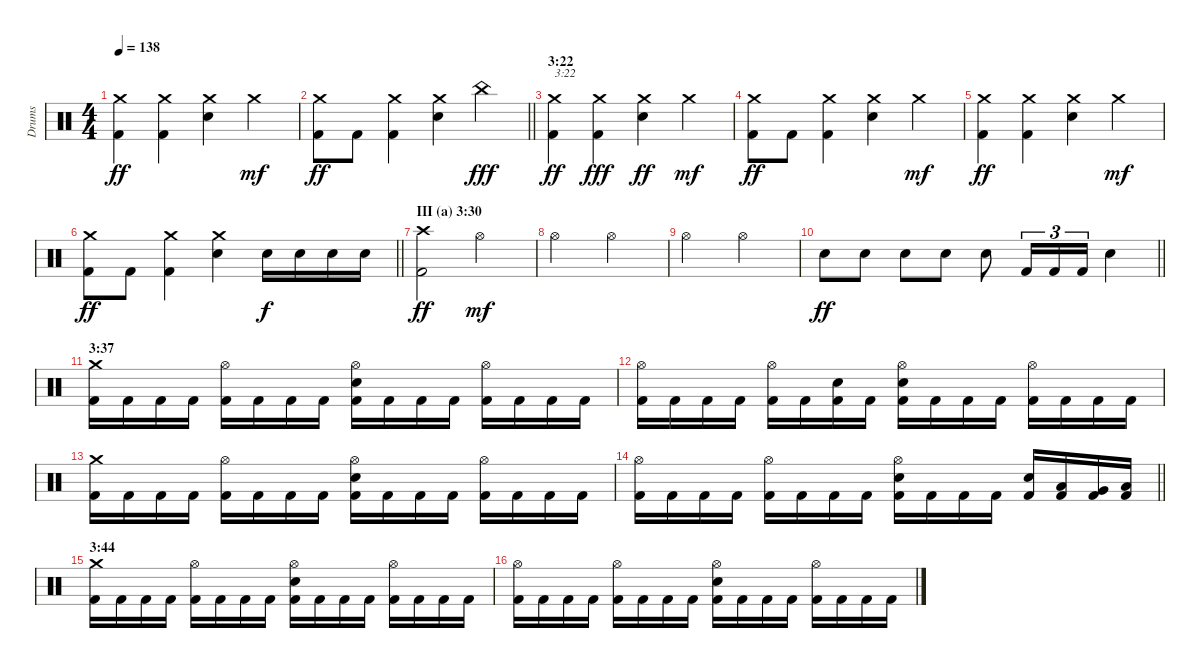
\track ("Drums" "Drums") {instrument percussion}
\staff {score}
\articulation defaults
\ts (4 4)
\tempo 138
\clef neutral
\ks c
("Crash medium (hit)" "Kick (hit) 2").4{dy ff} ("Crash medium (hit)" "Kick (hit) 2").4 ("Crash medium (hit)" "Electric Snare (hit)").4 "Crash medium (hit)".4{dy mf} |
\barLineRight lightlight
("Crash medium (hit)" "Kick (hit) 2").8{dy ff} "Kick (hit) 2".8 ("Crash medium (hit)" "Kick (hit) 2").4 ("Crash medium (hit)" "Electric Snare (hit)").4 "China (hit)".4{dy fff} |
\section ("" "3:22")
("Crash medium (hit)" "Kick (hit) 2").4{txt "3:22" dy ff} ("Crash medium (hit)" "Kick (hit) 2").4{dy fff} ("Crash medium (hit)" "Electric Snare (hit)").4{dy ff} "Crash medium (hit)".4{dy mf} |
("Crash medium (hit)" "Kick (hit) 2").8{dy ff} "Kick (hit) 2".8 ("Crash medium (hit)" "Kick (hit) 2").4 ("Crash medium (hit)" "Electric Snare (hit)").4 "Crash medium (hit)".4{dy mf} |
("Crash medium (hit)" "Kick (hit) 2").4{dy ff} ("Crash medium (hit)" "Kick (hit) 2").4 ("Crash medium (hit)" "Electric Snare (hit)").4 "Crash medium (hit)".4{dy mf} |
\barLineRight lightlight
("Crash medium (hit)" "Kick (hit) 2").8{dy ff} "Kick (hit) 2".8 ("Crash medium (hit)" "Kick (hit) 2").4 ("Crash medium (hit)" "Electric Snare (hit)").4 "Electric Snare (hit)".16{dy f} "Electric Snare (hit)".16 "Electric Snare (hit)".16 "Electric Snare (hit)".16 |
\section ("" "III (a) 3:30")
("Crash high (hit)" "Kick (hit) 2").2{dy ff} "Hi-Hat (open)".2{dy mf} |
"Hi-Hat (open)".2 "Hi-Hat (open)".2 |
"Hi-Hat (open)".2 "Hi-Hat (open)".2 |
\barLineRight lightlight "Electric Snare (hit)".8{dy ff} "Electric Snare (hit)".8 "Electric Snare (hit)".8 "Electric Snare (hit)".8 "Electric Snare (hit)".8 "Kick (hit) 2".16{tu (3 2)} "Kick (hit) 2".16{tu (3 2)} "Kick (hit) 2".16{tu (3 2)} "Electric Snare (hit)".4
|
\section ("" "3:37")
("Crash medium (hit)" "Kick (hit) 2").16 "Kick (hit) 2".16 "Kick (hit) 2".16 "Kick (hit) 2".16 ("Hi-Hat (open)" "Kick (hit) 2").16 "Kick (hit) 2".16 "Kick (hit) 2".16 "Kick (hit) 2".16 ("Hi-Hat (open)" "Electric Snare (hit)" "Kick (hit) 2").16 "Kick (hit) 2".16 "Kick (hit) 2".16 "Kick (hit) 2".16 ("Hi-Hat (open)" "Kick (hit) 2").16 "Kick (hit) 2".16 "Kick (hit) 2".16 "Kick (hit) 2".16 |
("Hi-Hat (open)" "Kick (hit) 2").16 "Kick (hit) 2".16 "Kick (hit) 2".16 "Kick (hit) 2".16 ("Hi-Hat (open)" "Kick (hit) 2").16 "Kick (hit) 2".16 ("Electric Snare (hit)" "Kick (hit) 2").16 "Kick (hit) 2".16 ("Hi-Hat (open)" "Electric Snare (hit)" "Kick (hit) 2").16 "Kick (hit) 2".16 "Kick (hit) 2".16 "Kick (hit) 2".16 ("Hi-Hat (open)" "Kick (hit) 2").16 "Kick (hit) 2".16 "Kick (hit) 2".16 "Kick (hit) 2".16 |
("Crash medium (hit)" "Kick (hit) 2").16 "Kick (hit) 2".16 "Kick (hit) 2".16 "Kick (hit) 2".16 ("Hi-Hat (open)" "Kick (hit) 2").16 "Kick (hit) 2".16 "Kick (hit) 2".16 "Kick (hit) 2".16 ("Hi-Hat (open)" "Electric Snare (hit)" "Kick (hit) 2").16 "Kick (hit) 2".16 "Kick (hit) 2".16 "Kick (hit) 2".16 ("Hi-Hat (open)" "Kick (hit) 2").16 "Kick (hit) 2".16 "Kick (hit) 2".16 "Kick (hit) 2".16 |
\barLineRight lightlight
("Hi-Hat (open)" "Kick (hit) 2").16 "Kick (hit) 2".16 "Kick (hit) 2".16 "Kick (hit) 2".16 ("Hi-Hat (open)" "Kick (hit) 2").16 "Kick (hit) 2".16 "Kick (hit) 2".16 "Kick (hit) 2".16 ("Hi-Hat (open)" "Electric Snare (hit)" "Kick (hit) 2").16 "Kick (hit) 2".16 "Kick (hit) 2".16 "Kick (hit) 2".16 ("Electric Snare (hit)" "Kick (hit) 2").16 ("Low Tom (hit)" "Kick (hit) 2").16 ("Very Low Tom (hit)" "Kick (hit) 2").16 ("Low Floor Tom (hit)" "Kick (hit) 2").16 |
\section ("" "3:44")
("Crash medium (hit)" "Kick (hit) 2").16 "Kick (hit) 2".16 "Kick (hit) 2".16 "Kick (hit) 2".16 ("Hi-Hat (open)" "Kick (hit) 2").16 "Kick (hit) 2".16 "Kick (hit) 2".16 "Kick (hit) 2".16 ("Hi-Hat (open)" "Electric Snare (hit)" "Kick (hit) 2").16 "Kick (hit) 2".16 "Kick (hit) 2".16 "Kick (hit) 2".16 ("Hi-Hat (open)" "Kick (hit) 2").16 "Kick (hit) 2".16 "Kick (hit) 2".16 "Kick (hit) 2".16 |
("Hi-Hat (open)" "Kick (hit) 2").16 "Kick (hit) 2".16 "Kick (hit) 2".16 "Kick (hit) 2".16 ("Hi-Hat (open)" "Kick (hit) 2").16 "Kick (hit) 2".16 "Kick (hit) 2".16 "Kick (hit) 2".16 ("Hi-Hat (open)" "Electric Snare (hit)" "Kick (hit) 2").16 "Kick (hit) 2".16 "Kick (hit) 2".16 "Kick (hit) 2".16 ("Hi-Hat (open)" "Kick (hit) 2").16 "Kick (hit) 2".16 "Kick (hit) 2".16 "Kick (hit) 2".16
